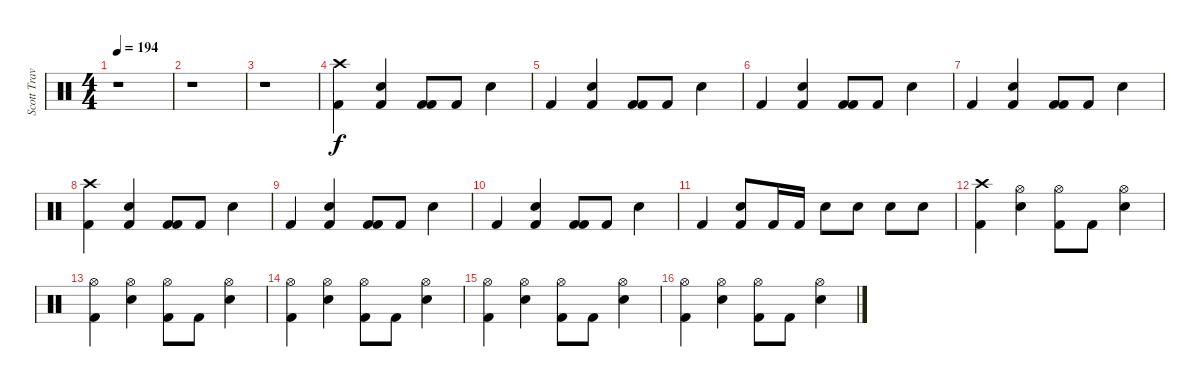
\track ("Scott Travis" "Scott Trav") {instrument percussion}
\staff {score}
\articulation defaults
\ts (4 4)
\tempo 194
\clef neutral
\ks c
r.1{dy f} |
r.1 |
r.1 |
("Kick (hit) 2" "Crash high (hit)").4 ("Kick (hit) 2" "Snare (hit) 2").4 ("Kick (hit) 2" "Kick (hit) 2").8 "Kick (hit) 2".8 "Snare (hit) 2".4 |
"Kick (hit) 2".4 ("Kick (hit) 2" "Snare (hit) 2").4 ("Kick (hit) 2" "Kick (hit) 2").8 "Kick (hit) 2".8 "Snare (hit) 2".4 |
"Kick (hit) 2".4 ("Kick (hit) 2" "Snare (hit) 2").4 ("Kick (hit) 2" "Kick (hit) 2").8 "Kick (hit) 2".8 "Snare (hit) 2".4 |
"Kick (hit) 2".4 ("Kick (hit) 2" "Snare (hit) 2").4 ("Kick (hit) 2" "Kick (hit) 2").8 "Kick (hit) 2".8 "Snare (hit) 2".4 |
("Kick (hit) 2" "Crash high (hit)").4 ("Kick (hit) 2" "Snare (hit) 2").4 ("Kick (hit) 2" "Kick (hit) 2").8 "Kick (hit) 2".8 "Snare (hit) 2".4 |
"Kick (hit) 2".4 ("Kick (hit) 2" "Snare (hit) 2").4 ("Kick (hit) 2" "Kick (hit) 2").8 "Kick (hit) 2".8 "Snare (hit) 2".4 |
"Kick (hit) 2".4 ("Kick (hit) 2" "Snare (hit) 2").4 ("Kick (hit) 2" "Kick (hit) 2").8 "Kick (hit) 2".8 "Snare (hit) 2".4 |
"Kick (hit) 2".4 ("Kick (hit) 2" "Snare (hit) 2").8 "Kick (hit) 2".16 "Kick (hit) 2".16 "Snare (hit) 2".8 "Snare (hit) 2".8 "Snare (hit) 2".8 "Snare (hit) 2".8 |
("Kick (hit) 2" "Crash high (hit)").4 ("Hi-Hat (open)" "Snare (hit) 2").4 ("Hi-Hat (open)" "Kick (hit) 2").8 "Kick (hit) 2".8 ("Snare (hit) 2" "Hi-Hat (open)").4 |
("Kick (hit) 2" "Hi-Hat (open)").4 ("Hi-Hat (open)" "Snare (hit) 2").4 ("Hi-Hat (open)" "Kick (hit) 2").8 "Kick (hit) 2".8 ("Snare (hit) 2" "Hi-Hat (open)").4 |
("Kick (hit) 2" "Hi-Hat (open)").4 ("Hi-Hat (open)" "Snare (hit) 2").4 ("Hi-Hat (open)" "Kick (hit) 2").8 "Kick (hit) 2".8 ("Snare (hit) 2" "Hi-Hat (open)").4 |
("Kick (hit) 2" "Hi-Hat (open)").4 ("Hi-Hat (open)" "Snare (hit) 2").4 ("Hi-Hat (open)" "Kick (hit) 2").8 "Kick (hit) 2".8 ("Snare (hit) 2" "Hi-Hat (open)").4 |
("Kick (hit) 2" "Hi-Hat (open)").4 ("Hi-Hat (open)" "Snare (hit) 2").4 ("Hi-Hat (open)" "Kick (hit) 2").8 "Kick (hit) 2".8 ("Snare (hit) 2" "Hi-Hat (open)").4
